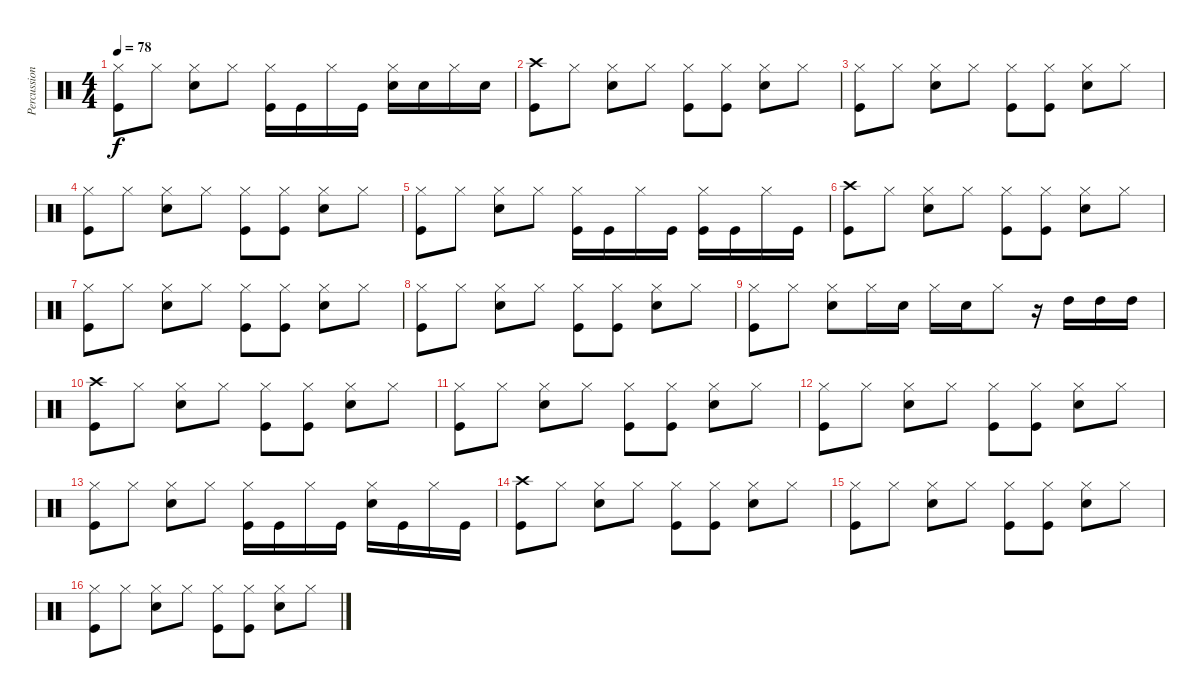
\track ("Percussion" "Percussion") {instrument percussion}
\staff {score}
\articulation defaults
\ts (4 4)
\tempo 78
\clef neutral
\ks c
("Hi-Hat (closed)" "Kick (hit)").8{dy f} "Hi-Hat (closed)".8 ("Hi-Hat (closed)" "Snare (hit) 2").8 "Hi-Hat (closed)".8 ("Hi-Hat (closed)" "Kick (hit)").16 "Kick (hit)".16 "Hi-Hat (closed)".16 "Kick (hit)".16 ("Hi-Hat (closed)" "Snare (hit) 2").16 "Snare (hit) 2".16 "Hi-Hat (closed)".16 "Snare (hit) 2".16 |
("Crash high (hit)" "Kick (hit)").8 "Hi-Hat (closed)".8 ("Hi-Hat (closed)" "Snare (hit) 2").8 "Hi-Hat (closed)".8 ("Hi-Hat (closed)" "Kick (hit)").8 ("Hi-Hat (closed)" "Kick (hit)").8 ("Hi-Hat (closed)" "Snare (hit) 2").8 "Hi-Hat (closed)".8 |
("Hi-Hat (closed)" "Kick (hit)").8 "Hi-Hat (closed)".8 ("Hi-Hat (closed)" "Snare (hit) 2").8 "Hi-Hat (closed)".8 ("Hi-Hat (closed)" "Kick (hit)").8 ("Hi-Hat (closed)" "Kick (hit)").8 ("Hi-Hat (closed)" "Snare (hit) 2").8 "Hi-Hat (closed)".8 |
("Hi-Hat (closed)" "Kick (hit)").8 "Hi-Hat (closed)".8 ("Hi-Hat (closed)" "Snare (hit) 2").8 "Hi-Hat (closed)".8 ("Hi-Hat (closed)" "Kick (hit)").8 ("Hi-Hat (closed)" "Kick (hit)").8 ("Hi-Hat (closed)" "Snare (hit) 2").8 "Hi-Hat (closed)".8 |
("Hi-Hat (closed)" "Kick (hit)").8 "Hi-Hat (closed)".8 ("Hi-Hat (closed)" "Snare (hit) 2").8 "Hi-Hat (closed)".8 ("Hi-Hat (closed)" "Kick (hit)").16 "Kick (hit)".16 "Hi-Hat (closed)".16 "Kick (hit)".16 ("Hi-Hat (closed)" "Kick (hit)").16 "Kick (hit)".16 "Hi-Hat (closed)".16 "Kick (hit)".16 |
("Crash high (hit)" "Kick (hit)").8 "Hi-Hat (closed)".8 ("Hi-Hat (closed)" "Snare (hit) 2").8 "Hi-Hat (closed)".8 ("Hi-Hat (closed)" "Kick (hit)").8 ("Hi-Hat (closed)" "Kick (hit)").8 ("Hi-Hat (closed)" "Snare (hit) 2").8 "Hi-Hat (closed)".8 |
("Hi-Hat (closed)" "Kick (hit)").8 "Hi-Hat (closed)".8 ("Hi-Hat (closed)" "Snare (hit) 2").8 "Hi-Hat (closed)".8 ("Hi-Hat (closed)" "Kick (hit)").8 ("Hi-Hat (closed)" "Kick (hit)").8 ("Hi-Hat (closed)" "Snare (hit) 2").8 "Hi-Hat (closed)".8 |
("Hi-Hat (closed)" "Kick (hit)").8 "Hi-Hat (closed)".8 ("Hi-Hat (closed)" "Snare (hit) 2").8 "Hi-Hat (closed)".8 ("Hi-Hat (closed)" "Kick (hit)").8 ("Hi-Hat (closed)" "Kick (hit)").8 ("Hi-Hat (closed)" "Snare (hit) 2").8 "Hi-Hat (closed)".8 |
("Hi-Hat (closed)" "Kick (hit)").8 "Hi-Hat (closed)".8 ("Hi-Hat (closed)" "Snare (hit) 2").8 "Hi-Hat (closed)".16 "Snare (hit) 2".16 "Hi-Hat (closed)".16 "Snare (hit) 2".16 "Hi-Hat (closed)".8 r.16 "High Tom (hit)".16 "High Tom (hit)".16 "High Tom (hit)".16 |
("Crash high (hit)" "Kick (hit)").8 "Hi-Hat (closed)".8 ("Hi-Hat (closed)" "Snare (hit) 2").8 "Hi-Hat (closed)".8 ("Hi-Hat (closed)" "Kick (hit)").8 ("Hi-Hat (closed)" "Kick (hit)").8 ("Hi-Hat (closed)" "Snare (hit) 2").8 "Hi-Hat (closed)".8 |
("Hi-Hat (closed)" "Kick (hit)").8 "Hi-Hat (closed)".8 ("Hi-Hat (closed)" "Snare (hit) 2").8 "Hi-Hat (closed)".8 ("Hi-Hat (closed)" "Kick (hit)").8 ("Hi-Hat (closed)" "Kick (hit)").8 ("Hi-Hat (closed)" "Snare (hit) 2").8 "Hi-Hat (closed)".8 |
("Hi-Hat (closed)" "Kick (hit)").8 "Hi-Hat (closed)".8 ("Hi-Hat (closed)" "Snare (hit) 2").8 "Hi-Hat (closed)".8 ("Hi-Hat (closed)" "Kick (hit)").8 ("Hi-Hat (closed)" "Kick (hit)").8 ("Hi-Hat (closed)" "Snare (hit) 2").8 "Hi-Hat (closed)".8 |
("Hi-Hat (closed)" "Kick (hit)").8 "Hi-Hat (closed)".8 ("Hi-Hat (closed)" "Snare (hit) 2").8 "Hi-Hat (closed)".8 ("Hi-Hat (closed)" "Kick (hit)").16 "Kick (hit)".16 "Hi-Hat (closed)".16 "Kick (hit)".16 ("Hi-Hat (closed)" "Snare (hit) 2").16 "Kick (hit)".16 "Hi-Hat (closed)".16 "Kick (hit)".16 |
("Crash high (hit)" "Kick (hit)").8 "Hi-Hat (closed)".8 ("Hi-Hat (closed)" "Snare (hit) 2").8 "Hi-Hat (closed)".8 ("Hi-Hat (closed)" "Kick (hit)").8 ("Hi-Hat (closed)" "Kick (hit)").8 ("Hi-Hat (closed)" "Snare (hit) 2").8 "Hi-Hat (closed)".8 |
("Hi-Hat (closed)" "Kick (hit)").8 "Hi-Hat (closed)".8 ("Hi-Hat (closed)" "Snare (hit) 2").8 "Hi-Hat (closed)".8 ("Hi-Hat (closed)" "Kick (hit)").8 ("Hi-Hat (closed)" "Kick (hit)").8 ("Hi-Hat (closed)" "Snare (hit) 2").8 "Hi-Hat (closed)".8 |
("Hi-Hat (closed)" "Kick (hit)").8 "Hi-Hat (closed)".8 ("Hi-Hat (closed)" "Snare (hit) 2").8 "Hi-Hat (closed)".8 ("Hi-Hat (closed)" "Kick (hit)").8 ("Hi-Hat (closed)" "Kick (hit)").8 ("Hi-Hat (closed)" "Snare (hit) 2").8 "Hi-Hat (closed)".8
